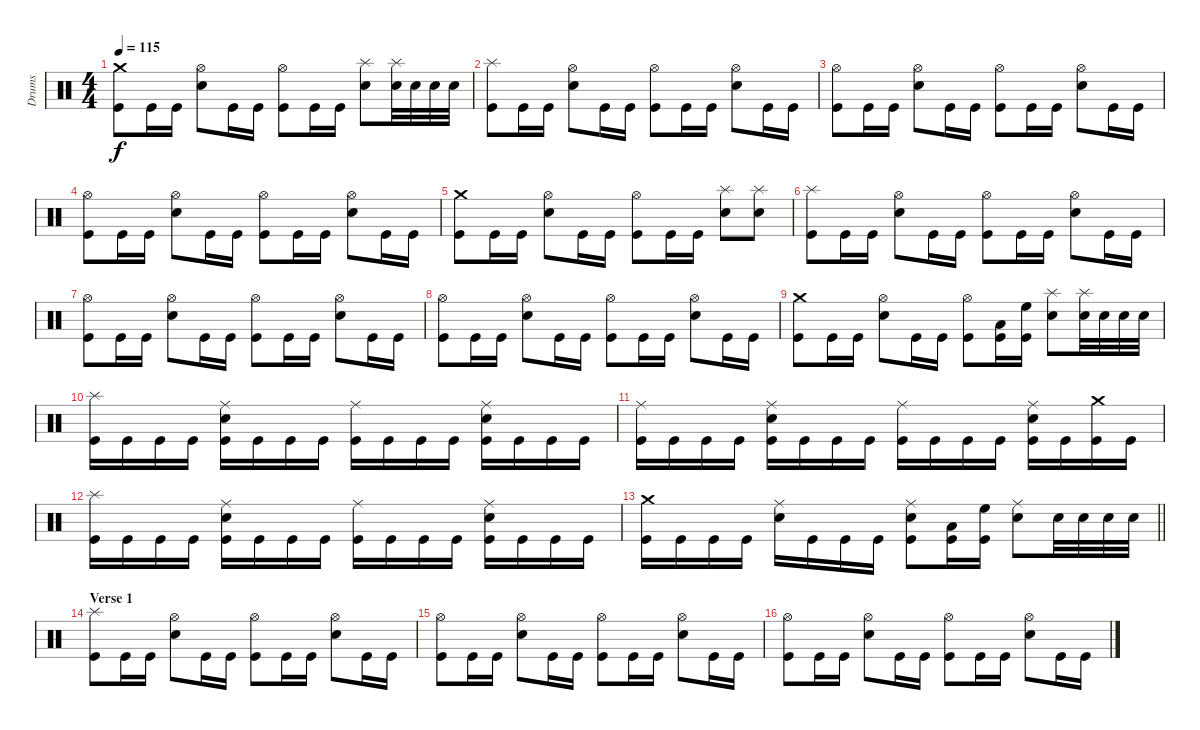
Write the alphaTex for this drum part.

\track ("Drums" "Drums") {instrument percussion}
\staff {score}
\articulation defaults
\ts (4 4)
\tempo 115
\clef neutral
\ks c
("Crash medium (hit)" "Kick (hit)").8{dy f} "Kick (hit)".16 "Kick (hit)".16 ("Hi-Hat (open)" "Snare (hit) 2").8 "Kick (hit)".16 "Kick (hit)".16 ("Hi-Hat (open)" "Kick (hit)").8 "Kick (hit)".16 "Kick (hit)".16 ("Splash (hit)" "Snare (hit) 2").8 ("Splash (hit)" "Snare (hit) 2").32 "Snare (hit) 2".32 "Snare (hit) 2".32 "Snare (hit) 2".32 |
("Splash (hit)" "Kick (hit)").8 "Kick (hit)".16 "Kick (hit)".16 ("Hi-Hat (open)" "Snare (hit) 2").8 "Kick (hit)".16 "Kick (hit)".16 ("Hi-Hat (open)" "Kick (hit)").8 "Kick (hit)".16 "Kick (hit)".16 ("Hi-Hat (open)" "Snare (hit) 2").8 "Kick (hit)".16 "Kick (hit)".16 |
("Hi-Hat (open)" "Kick (hit)").8 "Kick (hit)".16 "Kick (hit)".16 ("Hi-Hat (open)" "Snare (hit) 2").8 "Kick (hit)".16 "Kick (hit)".16 ("Hi-Hat (open)" "Kick (hit)").8 "Kick (hit)".16 "Kick (hit)".16 ("Hi-Hat (open)" "Snare (hit) 2").8 "Kick (hit)".16 "Kick (hit)".16 |
("Hi-Hat (open)" "Kick (hit)").8 "Kick (hit)".16 "Kick (hit)".16 ("Hi-Hat (open)" "Snare (hit) 2").8 "Kick (hit)".16 "Kick (hit)".16 ("Hi-Hat (open)" "Kick (hit)").8 "Kick (hit)".16 "Kick (hit)".16 ("Hi-Hat (open)" "Snare (hit) 2").8 "Kick (hit)".16 "Kick (hit)".16 |
("Crash medium (hit)" "Kick (hit)").8 "Kick (hit)".16 "Kick (hit)".16 ("Hi-Hat (open)" "Snare (hit) 2").8 "Kick (hit)".16 "Kick (hit)".16 ("Hi-Hat (open)" "Kick (hit)").8 "Kick (hit)".16 "Kick (hit)".16 ("Splash (hit)" "Snare (hit) 2").8 ("Splash (hit)" "Snare (hit) 2").8 |
("Splash (hit)" "Kick (hit)").8 "Kick (hit)".16 "Kick (hit)".16 ("Hi-Hat (open)" "Snare (hit) 2").8 "Kick (hit)".16 "Kick (hit)".16 ("Hi-Hat (open)" "Kick (hit)").8 "Kick (hit)".16 "Kick (hit)".16 ("Hi-Hat (open)" "Snare (hit) 2").8 "Kick (hit)".16 "Kick (hit)".16 |
("Hi-Hat (open)" "Kick (hit)").8 "Kick (hit)".16 "Kick (hit)".16 ("Hi-Hat (open)" "Snare (hit) 2").8 "Kick (hit)".16 "Kick (hit)".16 ("Hi-Hat (open)" "Kick (hit)").8 "Kick (hit)".16 "Kick (hit)".16 ("Hi-Hat (open)" "Snare (hit) 2").8 "Kick (hit)".16 "Kick (hit)".16 |
("Hi-Hat (open)" "Kick (hit)").8 "Kick (hit)".16 "Kick (hit)".16 ("Hi-Hat (open)" "Snare (hit) 2").8 "Kick (hit)".16 "Kick (hit)".16 ("Hi-Hat (open)" "Kick (hit)").8 "Kick (hit)".16 "Kick (hit)".16 ("Hi-Hat (open)" "Snare (hit) 2").8 "Kick (hit)".16 "Kick (hit)".16 |
("Crash medium (hit)" "Kick (hit)").8 "Kick (hit)".16 "Kick (hit)".16 ("Hi-Hat (open)" "Snare (hit) 2").8 "Kick (hit)".16 "Kick (hit)".16 ("Hi-Hat (open)" "Kick (hit)").8 ("Low Tom (hit)" "Kick (hit)").16 ("High Floor Tom (hit)" "Kick (hit)").16 ("Splash (hit)" "Snare (hit) 2").8 ("Splash (hit)" "Snare (hit) 2").32 "Snare (hit) 2".32 "Snare (hit) 2".32 "Snare (hit) 2".32 |
("Splash (hit)" "Kick (hit)").16 "Kick (hit)".16 "Kick (hit)".16 "Kick (hit)".16 ("Ride (middle)" "Snare (hit) 2" "Kick (hit)").16 "Kick (hit)".16 "Kick (hit)".16 "Kick (hit)".16 ("Ride (middle)" "Kick (hit)").16 "Kick (hit)".16 "Kick (hit)".16 "Kick (hit)".16 ("Ride (middle)" "Snare (hit) 2" "Kick (hit)").16 "Kick (hit)".16 "Kick (hit)".16 "Kick (hit)".16 |
("Ride (middle)" "Kick (hit)").16 "Kick (hit)".16 "Kick (hit)".16 "Kick (hit)".16 ("Ride (middle)" "Snare (hit) 2" "Kick (hit)").16 "Kick (hit)".16 "Kick (hit)".16 "Kick (hit)".16 ("Ride (middle)" "Kick (hit)").16 "Kick (hit)".16 "Kick (hit)".16 "Kick (hit)".16 ("Ride (middle)" "Snare (hit) 2" "Kick (hit)").16 "Kick (hit)".16 ("Crash medium (hit)" "Kick (hit)").16 "Kick (hit)".16 |
("Splash (hit)" "Kick (hit)").16 "Kick (hit)".16 "Kick (hit)".16 "Kick (hit)".16 ("Ride (middle)" "Snare (hit) 2" "Kick (hit)").16 "Kick (hit)".16 "Kick (hit)".16 "Kick (hit)".16 ("Ride (middle)" "Kick (hit)").16 "Kick (hit)".16 "Kick (hit)".16 "Kick (hit)".16 ("Ride (middle)" "Snare (hit) 2" "Kick (hit)").16 "Kick (hit)".16 "Kick (hit)".16 "Kick (hit)".16 |
\barLineRight lightlight
("Crash medium (hit)" "Kick (hit)").16 "Kick (hit)".16 "Kick (hit)".16 "Kick (hit)".16 ("Ride (middle)" "Snare (hit) 2").16 "Kick (hit)".16 "Kick (hit)".16 "Kick (hit)".16 ("Ride (middle)" "Snare (hit) 2" "Kick (hit)").8 ("Low Tom (hit)" "Kick (hit)").16 ("High Floor Tom (hit)" "Kick (hit)").16 ("Ride (middle)" "Snare (hit) 2").8 "Snare (hit) 2".32 "Snare (hit) 2".32 "Snare (hit) 2".32 "Snare (hit) 2".32 |
\section ("" "Verse 1")
("Splash (hit)" "Kick (hit)").8 "Kick (hit)".16 "Kick (hit)".16 ("Hi-Hat (open)" "Snare (hit) 2").8 "Kick (hit)".16 "Kick (hit)".16 ("Hi-Hat (open)" "Kick (hit)").8 "Kick (hit)".16 "Kick (hit)".16 ("Hi-Hat (open)" "Snare (hit) 2").8 "Kick (hit)".16 "Kick (hit)".16 |
("Hi-Hat (open)" "Kick (hit)").8 "Kick (hit)".16 "Kick (hit)".16 ("Hi-Hat (open)" "Snare (hit) 2").8 "Kick (hit)".16 "Kick (hit)".16 ("Hi-Hat (open)" "Kick (hit)").8 "Kick (hit)".16 "Kick (hit)".16 ("Hi-Hat (open)" "Snare (hit) 2").8 "Kick (hit)".16 "Kick (hit)".16 |
("Hi-Hat (open)" "Kick (hit)").8 "Kick (hit)".16 "Kick (hit)".16 ("Hi-Hat (open)" "Snare (hit) 2").8 "Kick (hit)".16 "Kick (hit)".16 ("Hi-Hat (open)" "Kick (hit)").8 "Kick (hit)".16 "Kick (hit)".16 ("Hi-Hat (open)" "Snare (hit) 2").8 "Kick (hit)".16 "Kick (hit)".16
